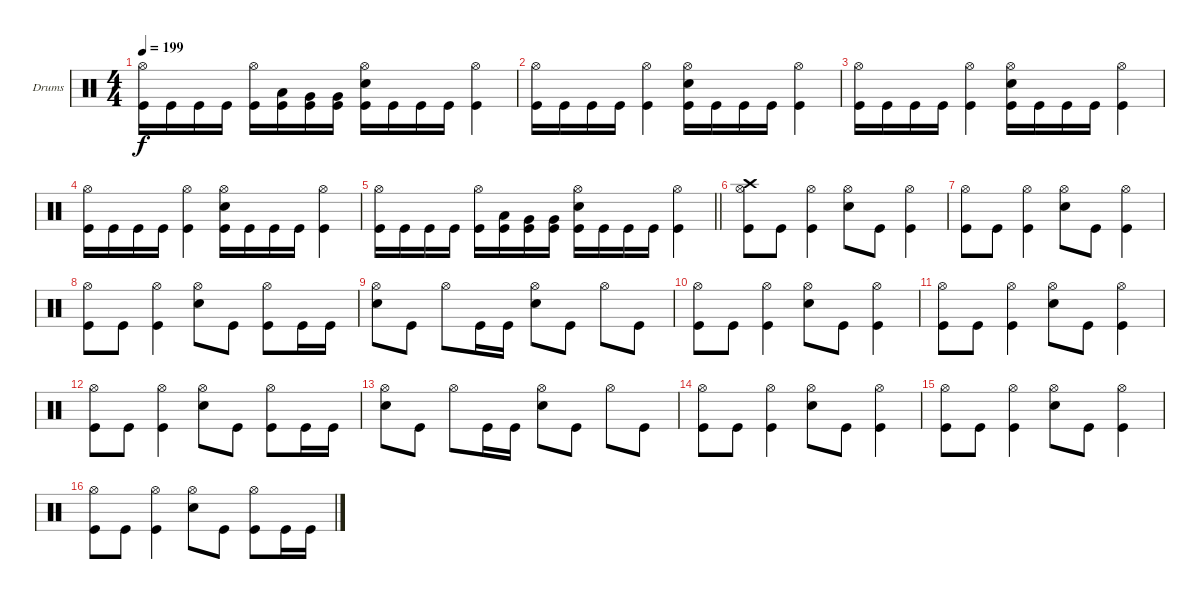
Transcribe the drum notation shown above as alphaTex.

\bracketExtendMode groupsimilarinstruments
\firstSystemTrackNameOrientation horizontal
\otherSystemsTrackNameOrientation horizontal
\track ("Drumkit" "Drums") {instrument percussion}
\staff {score}
\articulation defaults
\ts (4 4)
\tempo 199
\clef neutral
\ks c
("Hi-Hat (open)" "Kick (hit)").16{dy f} "Kick (hit)".16 "Kick (hit)".16 "Kick (hit)".16 ("Hi-Hat (open)" "Kick (hit)").16 ("Kick (hit)" "Low Tom (hit)").16 ("Kick (hit)" "Very Low Tom (hit)").16 ("Kick (hit)" "Very Low Tom (hit)").16 ("Hi-Hat (open)" "Kick (hit)" "Snare (hit) 2").16 "Kick (hit)".16 "Kick (hit)".16 "Kick (hit)".16 ("Hi-Hat (open)" "Kick (hit)").4 |
("Hi-Hat (open)" "Kick (hit)").16 "Kick (hit)".16 "Kick (hit)".16 "Kick (hit)".16 ("Hi-Hat (open)" "Kick (hit)").4 ("Hi-Hat (open)" "Kick (hit)" "Snare (hit) 2").16 "Kick (hit)".16 "Kick (hit)".16 "Kick (hit)".16 ("Hi-Hat (open)" "Kick (hit)").4 |
("Hi-Hat (open)" "Kick (hit)").16 "Kick (hit)".16 "Kick (hit)".16 "Kick (hit)".16 ("Hi-Hat (open)" "Kick (hit)").4 ("Hi-Hat (open)" "Kick (hit)" "Snare (hit) 2").16 "Kick (hit)".16 "Kick (hit)".16 "Kick (hit)".16 ("Hi-Hat (open)" "Kick (hit)").4 |
("Hi-Hat (open)" "Kick (hit)").16 "Kick (hit)".16 "Kick (hit)".16 "Kick (hit)".16 ("Hi-Hat (open)" "Kick (hit)").4 ("Hi-Hat (open)" "Kick (hit)" "Snare (hit) 2").16 "Kick (hit)".16 "Kick (hit)".16 "Kick (hit)".16 ("Hi-Hat (open)" "Kick (hit)").4 |
\barLineRight lightlight
("Hi-Hat (open)" "Kick (hit)").16 "Kick (hit)".16 "Kick (hit)".16 "Kick (hit)".16 ("Hi-Hat (open)" "Kick (hit)").16 ("Kick (hit)" "Low Tom (hit)").16 ("Kick (hit)" "Very Low Tom (hit)").16 ("Kick (hit)" "Very Low Tom (hit)").16 ("Hi-Hat (open)" "Kick (hit)" "Snare (hit) 2").16 "Kick (hit)".16 "Kick (hit)".16 "Kick (hit)".16 ("Hi-Hat (open)" "Kick (hit)").4 |
("Hi-Hat (open)" "Kick (hit)" "Crash high (hit)").8 "Kick (hit)".8 ("Hi-Hat (open)" "Kick (hit)").4 ("Hi-Hat (open)" "Snare (hit) 2").8 "Kick (hit)".8 ("Hi-Hat (open)" "Kick (hit)").4 |
("Hi-Hat (open)" "Kick (hit)").8 "Kick (hit)".8 ("Hi-Hat (open)" "Kick (hit)").4 ("Hi-Hat (open)" "Snare (hit) 2").8 "Kick (hit)".8 ("Hi-Hat (open)" "Kick (hit)").4 |
("Hi-Hat (open)" "Kick (hit)").8 "Kick (hit)".8 ("Hi-Hat (open)" "Kick (hit)").4 ("Hi-Hat (open)" "Snare (hit) 2").8 "Kick (hit)".8 ("Hi-Hat (open)" "Kick (hit)").8 "Kick (hit)".16 "Kick (hit)".16 |
("Hi-Hat (open)" "Snare (hit) 2").8 "Kick (hit)".8 "Hi-Hat (open)".8 "Kick (hit)".16 "Kick (hit)".16 ("Hi-Hat (open)" "Snare (hit) 2").8 "Kick (hit)".8 "Hi-Hat (open)".8 "Kick (hit)".8 |
("Hi-Hat (open)" "Kick (hit)").8 "Kick (hit)".8 ("Hi-Hat (open)" "Kick (hit)").4 ("Hi-Hat (open)" "Snare (hit) 2").8 "Kick (hit)".8 ("Hi-Hat (open)" "Kick (hit)").4 |
("Hi-Hat (open)" "Kick (hit)").8 "Kick (hit)".8 ("Hi-Hat (open)" "Kick (hit)").4 ("Hi-Hat (open)" "Snare (hit) 2").8 "Kick (hit)".8 ("Hi-Hat (open)" "Kick (hit)").4 |
("Hi-Hat (open)" "Kick (hit)").8 "Kick (hit)".8 ("Hi-Hat (open)" "Kick (hit)").4 ("Hi-Hat (open)" "Snare (hit) 2").8 "Kick (hit)".8 ("Hi-Hat (open)" "Kick (hit)").8 "Kick (hit)".16 "Kick (hit)".16 |
("Hi-Hat (open)" "Snare (hit) 2").8 "Kick (hit)".8 "Hi-Hat (open)".8 "Kick (hit)".16 "Kick (hit)".16 ("Hi-Hat (open)" "Snare (hit) 2").8 "Kick (hit)".8 "Hi-Hat (open)".8 "Kick (hit)".8 |
("Hi-Hat (open)" "Kick (hit)").8 "Kick (hit)".8 ("Hi-Hat (open)" "Kick (hit)").4 ("Hi-Hat (open)" "Snare (hit) 2").8 "Kick (hit)".8 ("Hi-Hat (open)" "Kick (hit)").4 |
("Hi-Hat (open)" "Kick (hit)").8 "Kick (hit)".8 ("Hi-Hat (open)" "Kick (hit)").4 ("Hi-Hat (open)" "Snare (hit) 2").8 "Kick (hit)".8 ("Hi-Hat (open)" "Kick (hit)").4 |
("Hi-Hat (open)" "Kick (hit)").8 "Kick (hit)".8 ("Hi-Hat (open)" "Kick (hit)").4 ("Hi-Hat (open)" "Snare (hit) 2").8 "Kick (hit)".8 ("Hi-Hat (open)" "Kick (hit)").8 "Kick (hit)".16 "Kick (hit)".16
